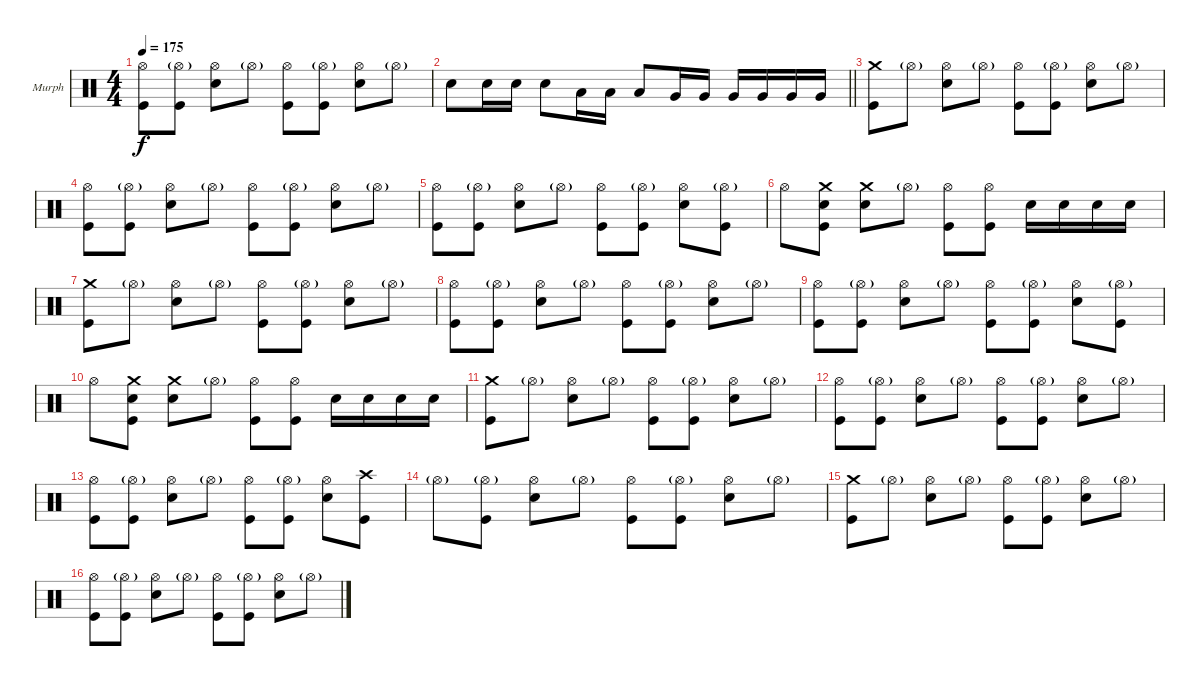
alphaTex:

\defaultSystemsLayout 4
\bracketExtendMode groupsimilarinstruments
\firstSystemTrackNameOrientation horizontal
\otherSystemsTrackNameOrientation horizontal
\track ("Murph" "Murph") {instrument percussion}
\staff {score}
\articulation defaults
\ts (4 4)
\tempo 175
\clef neutral
\scale
0.333333
\ks c
("Kick (hit)" "Hi-Hat (open)").8{dy f} ("Kick (hit)" "Hi-Hat (open)"{g}).8 ("Snare (hit) 2" "Hi-Hat (open)").8 "Hi-Hat (open)"{g}.8 ("Kick (hit)" "Hi-Hat (open)").8 ("Kick (hit)" "Hi-Hat (open)"{g}).8 ("Snare (hit) 2" "Hi-Hat (open)").8 "Hi-Hat (open)"{g}.8 |
\scale
0.333333
\barLineRight lightlight "Snare (hit) 2".8 "Snare (hit) 2".16 "Snare (hit) 2".16 "Snare (hit) 2".8 "Low Tom (hit)".16 "Low Tom (hit)".16 "Low Tom (hit)".8 "Very Low Tom (hit)".16 "Very Low Tom (hit)".16 "Very Low Tom (hit)".16 "Very Low Tom (hit)".16 "Very Low Tom (hit)".16 "Very Low Tom (hit)".16
|
\scale
0.333333 ("Kick (hit)" "Crash medium (hit)").8 "Hi-Hat (open)"{g}.8 ("Snare (hit) 2" "Hi-Hat (open)").8 "Hi-Hat (open)"{g}.8 ("Kick (hit)" "Hi-Hat (open)").8 ("Kick (hit)" "Hi-Hat (open)"{g}).8 ("Snare (hit) 2" "Hi-Hat (open)").8 "Hi-Hat (open)"{g}.8 |
\scale
0.333333 ("Kick (hit)" "Hi-Hat (open)").8 ("Kick (hit)" "Hi-Hat (open)"{g}).8 ("Snare (hit) 2" "Hi-Hat (open)").8 "Hi-Hat (open)"{g}.8 ("Kick (hit)" "Hi-Hat (open)").8 ("Kick (hit)" "Hi-Hat (open)"{g}).8 ("Snare (hit) 2" "Hi-Hat (open)").8 "Hi-Hat (open)"{g}.8 |
\scale
0.333333 ("Kick (hit)" "Hi-Hat (open)").8 ("Kick (hit)" "Hi-Hat (open)"{g}).8 ("Snare (hit) 2" "Hi-Hat (open)").8 "Hi-Hat (open)"{g}.8 ("Kick (hit)" "Hi-Hat (open)").8 ("Kick (hit)" "Hi-Hat (open)"{g}).8 ("Snare (hit) 2" "Hi-Hat (open)").8 ("Kick (hit)" "Hi-Hat (open)"{g}).8 |
\scale
0.333333 "Hi-Hat (open)".8 ("Kick (hit)" "Snare (hit) 2" "Crash medium (hit)").8 ("Snare (hit) 2" "Crash medium (hit)").8 "Hi-Hat (open)"{g}.8 ("Kick (hit)" "Hi-Hat (open)").8 ("Kick (hit)" "Hi-Hat (open)").8 "Snare (hit) 2".16 "Snare (hit) 2".16 "Snare (hit) 2".16 "Snare (hit) 2".16 |
\scale
0.333333 ("Kick (hit)" "Crash medium (hit)").8 "Hi-Hat (open)"{g}.8 ("Snare (hit) 2" "Hi-Hat (open)").8 "Hi-Hat (open)"{g}.8 ("Kick (hit)" "Hi-Hat (open)").8 ("Kick (hit)" "Hi-Hat (open)"{g}).8 ("Snare (hit) 2" "Hi-Hat (open)").8 "Hi-Hat (open)"{g}.8 |
\scale
0.333333 ("Kick (hit)" "Hi-Hat (open)").8 ("Kick (hit)" "Hi-Hat (open)"{g}).8 ("Snare (hit) 2" "Hi-Hat (open)").8 "Hi-Hat (open)"{g}.8 ("Kick (hit)" "Hi-Hat (open)").8 ("Kick (hit)" "Hi-Hat (open)"{g}).8 ("Snare (hit) 2" "Hi-Hat (open)").8 "Hi-Hat (open)"{g}.8 |
\scale
0.333333 ("Kick (hit)" "Hi-Hat (open)").8 ("Kick (hit)" "Hi-Hat (open)"{g}).8 ("Snare (hit) 2" "Hi-Hat (open)").8 "Hi-Hat (open)"{g}.8 ("Kick (hit)" "Hi-Hat (open)").8 ("Kick (hit)" "Hi-Hat (open)"{g}).8 ("Snare (hit) 2" "Hi-Hat (open)").8 ("Kick (hit)" "Hi-Hat (open)"{g}).8 |
\scale
0.333333 "Hi-Hat (open)".8 ("Kick (hit)" "Snare (hit) 2" "Crash medium (hit)").8 ("Snare (hit) 2" "Crash medium (hit)").8 "Hi-Hat (open)"{g}.8 ("Kick (hit)" "Hi-Hat (open)").8 ("Kick (hit)" "Hi-Hat (open)").8 "Snare (hit) 2".16 "Snare (hit) 2".16 "Snare (hit) 2".16 "Snare (hit) 2".16 |
\scale
0.333333 ("Kick (hit)" "Crash medium (hit)").8 "Hi-Hat (open)"{g}.8 ("Snare (hit) 2" "Hi-Hat (open)").8 "Hi-Hat (open)"{g}.8 ("Kick (hit)" "Hi-Hat (open)").8 ("Kick (hit)" "Hi-Hat (open)"{g}).8 ("Snare (hit) 2" "Hi-Hat (open)").8 "Hi-Hat (open)"{g}.8 |
\scale
0.333333 ("Kick (hit)" "Hi-Hat (open)").8 ("Kick (hit)" "Hi-Hat (open)"{g}).8 ("Snare (hit) 2" "Hi-Hat (open)").8 "Hi-Hat (open)"{g}.8 ("Kick (hit)" "Hi-Hat (open)").8 ("Kick (hit)" "Hi-Hat (open)"{g}).8 ("Snare (hit) 2" "Hi-Hat (open)").8 "Hi-Hat (open)"{g}.8 |
\scale
0.333333 ("Kick (hit)" "Hi-Hat (open)").8 ("Kick (hit)" "Hi-Hat (open)"{g}).8 ("Snare (hit) 2" "Hi-Hat (open)").8 "Hi-Hat (open)"{g}.8 ("Kick (hit)" "Hi-Hat (open)").8 ("Kick (hit)" "Hi-Hat (open)"{g}).8 ("Snare (hit) 2" "Hi-Hat (open)").8 ("Kick (hit)" "Crash high (hit)").8 |
\scale
0.333333 "Hi-Hat (open)"{g}.8 ("Kick (hit)" "Hi-Hat (open)"{g}).8 ("Snare (hit) 2" "Hi-Hat (open)").8 "Hi-Hat (open)"{g}.8 ("Kick (hit)" "Hi-Hat (open)").8 ("Kick (hit)" "Hi-Hat (open)"{g}).8 ("Snare (hit) 2" "Hi-Hat (open)").8 "Hi-Hat (open)"{g}.8 |
\scale
0.333333 ("Kick (hit)" "Crash medium (hit)").8 "Hi-Hat (open)"{g}.8 ("Snare (hit) 2" "Hi-Hat (open)").8 "Hi-Hat (open)"{g}.8 ("Kick (hit)" "Hi-Hat (open)").8 ("Kick (hit)" "Hi-Hat (open)"{g}).8 ("Snare (hit) 2" "Hi-Hat (open)").8 "Hi-Hat (open)"{g}.8 |
\scale
0.333333 ("Kick (hit)" "Hi-Hat (open)").8 ("Kick (hit)" "Hi-Hat (open)"{g}).8 ("Snare (hit) 2" "Hi-Hat (open)").8 "Hi-Hat (open)"{g}.8 ("Kick (hit)" "Hi-Hat (open)").8 ("Kick (hit)" "Hi-Hat (open)"{g}).8 ("Snare (hit) 2" "Hi-Hat (open)").8 "Hi-Hat (open)"{g}.8
